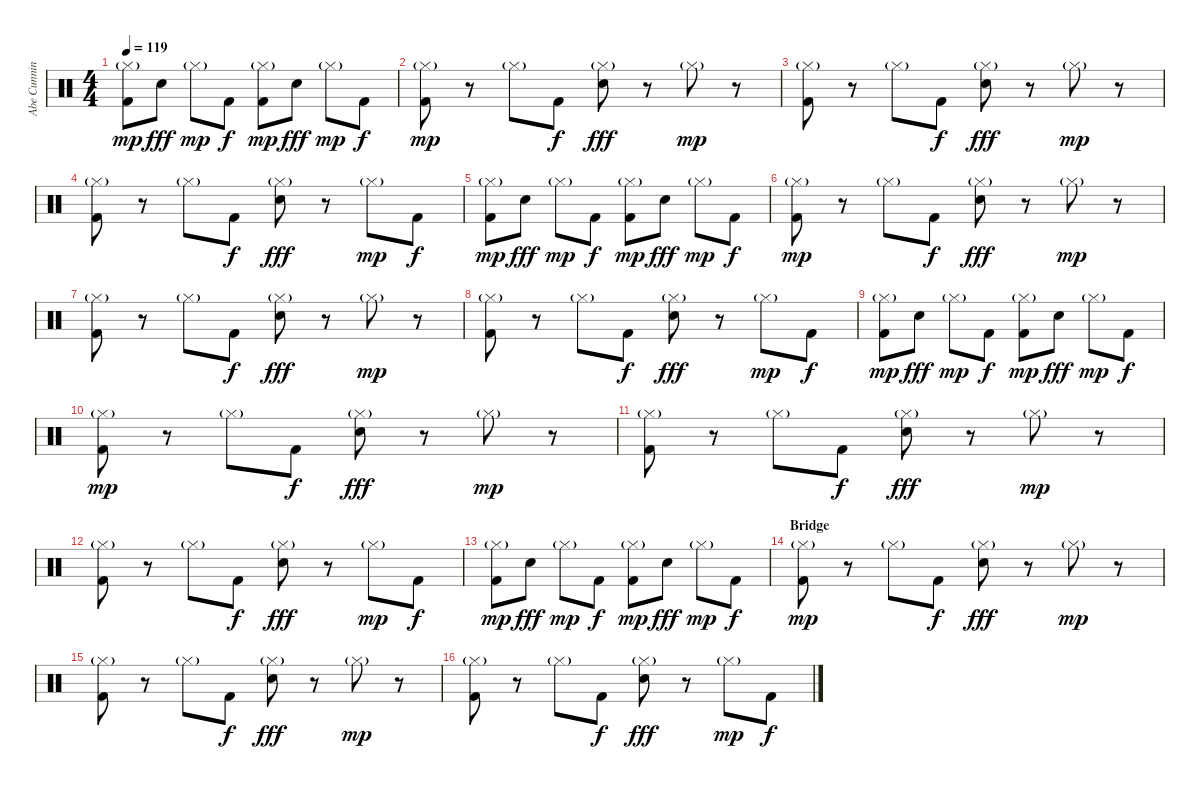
\track ("Abe Cunningham" "Abe Cunnin") {instrument percussion}
\staff {score}
\articulation defaults
\ts (4 4)
\tempo 119
\clef neutral
\ks c
("Hi-Hat (closed)"{g} "Kick (hit) 2").8{dy mp} "Snare (hit) 2".8{dy fff} "Hi-Hat (closed)"{g}.8{dy mp} "Kick (hit) 2".8{dy f} ("Hi-Hat (closed)"{g} "Kick (hit) 2").8{dy mp} "Snare (hit) 2".8{dy fff} "Hi-Hat (closed)"{g}.8{dy mp} "Kick (hit) 2".8{dy f} |
("Hi-Hat (closed)"{g} "Kick (hit) 2").8{dy mp} r.8 "Hi-Hat (closed)"{g}.8 "Kick (hit) 2".8{dy f} ("Hi-Hat (closed)"{g} "Snare (hit) 2").8{dy fff} r.8 "Hi-Hat (closed)"{g}.8{dy mp} r.8 |
("Hi-Hat (closed)"{g} "Kick (hit) 2").8 r.8 "Hi-Hat (closed)"{g}.8 "Kick (hit) 2".8{dy f} ("Hi-Hat (closed)"{g} "Snare (hit) 2").8{dy fff} r.8 "Hi-Hat (closed)"{g}.8{dy mp} r.8 |
("Hi-Hat (closed)"{g} "Kick (hit) 2").8 r.8 "Hi-Hat (closed)"{g}.8 "Kick (hit) 2".8{dy f} ("Hi-Hat (closed)"{g} "Snare (hit) 2").8{dy fff} r.8 "Hi-Hat (closed)"{g}.8{dy mp} "Kick (hit) 2".8{dy f} |
("Hi-Hat (closed)"{g} "Kick (hit) 2").8{dy mp} "Snare (hit) 2".8{dy fff} "Hi-Hat (closed)"{g}.8{dy mp} "Kick (hit) 2".8{dy f} ("Hi-Hat (closed)"{g} "Kick (hit) 2").8{dy mp} "Snare (hit) 2".8{dy fff} "Hi-Hat (closed)"{g}.8{dy mp} "Kick (hit) 2".8{dy f} |
("Hi-Hat (closed)"{g} "Kick (hit) 2").8{dy mp} r.8 "Hi-Hat (closed)"{g}.8 "Kick (hit) 2".8{dy f} ("Hi-Hat (closed)"{g} "Snare (hit) 2").8{dy fff} r.8 "Hi-Hat (closed)"{g}.8{dy mp} r.8 |
("Hi-Hat (closed)"{g} "Kick (hit) 2").8 r.8 "Hi-Hat (closed)"{g}.8 "Kick (hit) 2".8{dy f} ("Hi-Hat (closed)"{g} "Snare (hit) 2").8{dy fff} r.8 "Hi-Hat (closed)"{g}.8{dy mp} r.8 |
("Hi-Hat (closed)"{g} "Kick (hit) 2").8 r.8 "Hi-Hat (closed)"{g}.8 "Kick (hit) 2".8{dy f} ("Hi-Hat (closed)"{g} "Snare (hit) 2").8{dy fff} r.8 "Hi-Hat (closed)"{g}.8{dy mp} "Kick (hit) 2".8{dy f} |
("Hi-Hat (closed)"{g} "Kick (hit) 2").8{dy mp} "Snare (hit) 2".8{dy fff} "Hi-Hat (closed)"{g}.8{dy mp} "Kick (hit) 2".8{dy f} ("Hi-Hat (closed)"{g} "Kick (hit) 2").8{dy mp} "Snare (hit) 2".8{dy fff} "Hi-Hat (closed)"{g}.8{dy mp} "Kick (hit) 2".8{dy f} |
("Hi-Hat (closed)"{g} "Kick (hit) 2").8{dy mp} r.8 "Hi-Hat (closed)"{g}.8 "Kick (hit) 2".8{dy f} ("Hi-Hat (closed)"{g} "Snare (hit) 2").8{dy fff} r.8 "Hi-Hat (closed)"{g}.8{dy mp} r.8 |
("Hi-Hat (closed)"{g} "Kick (hit) 2").8 r.8 "Hi-Hat (closed)"{g}.8 "Kick (hit) 2".8{dy f} ("Hi-Hat (closed)"{g} "Snare (hit) 2").8{dy fff} r.8 "Hi-Hat (closed)"{g}.8{dy mp} r.8 |
("Hi-Hat (closed)"{g} "Kick (hit) 2").8 r.8 "Hi-Hat (closed)"{g}.8 "Kick (hit) 2".8{dy f} ("Hi-Hat (closed)"{g} "Snare (hit) 2").8{dy fff} r.8 "Hi-Hat (closed)"{g}.8{dy mp} "Kick (hit) 2".8{dy f} |
("Hi-Hat (closed)"{g} "Kick (hit) 2").8{dy mp} "Snare (hit) 2".8{dy fff} "Hi-Hat (closed)"{g}.8{dy mp} "Kick (hit) 2".8{dy f} ("Hi-Hat (closed)"{g} "Kick (hit) 2").8{dy mp} "Snare (hit) 2".8{dy fff} "Hi-Hat (closed)"{g}.8{dy mp} "Kick (hit) 2".8{dy f} |
\section ("" "Bridge")
("Hi-Hat (closed)"{g} "Kick (hit) 2").8{dy mp} r.8 "Hi-Hat (closed)"{g}.8 "Kick (hit) 2".8{dy f} ("Hi-Hat (closed)"{g} "Snare (hit) 2").8{dy fff} r.8 "Hi-Hat (closed)"{g}.8{dy mp} r.8 |
("Hi-Hat (closed)"{g} "Kick (hit) 2").8 r.8 "Hi-Hat (closed)"{g}.8 "Kick (hit) 2".8{dy f} ("Hi-Hat (closed)"{g} "Snare (hit) 2").8{dy fff} r.8 "Hi-Hat (closed)"{g}.8{dy mp} r.8 |
("Hi-Hat (closed)"{g} "Kick (hit) 2").8 r.8 "Hi-Hat (closed)"{g}.8 "Kick (hit) 2".8{dy f} ("Hi-Hat (closed)"{g} "Snare (hit) 2").8{dy fff} r.8 "Hi-Hat (closed)"{g}.8{dy mp} "Kick (hit) 2".8{dy f}
